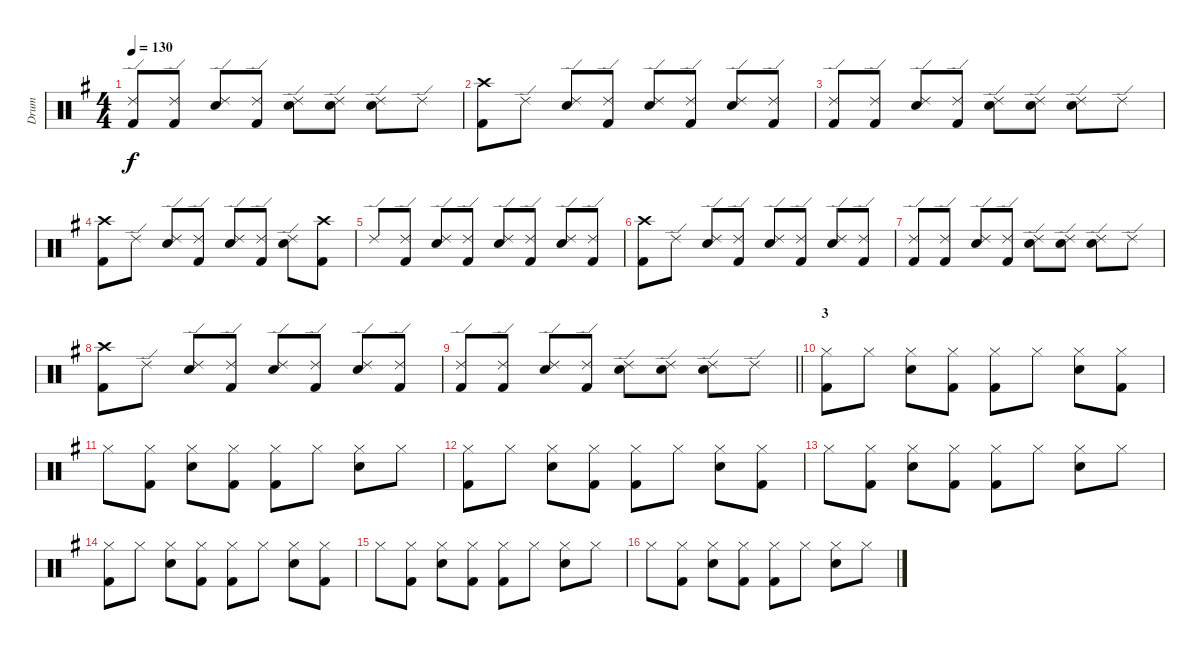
\track ("Drum" "Drum") {instrument percussion}
\staff {score}
\articulation defaults
\ts (4 4)
\tempo 130
\clef neutral
\ks g
("Kick (hit) 2" "Ride (edge) 2").8{dy f} ("Kick (hit) 2" "Ride (edge) 2").8 ("Ride (edge) 2" "Electric Snare (hit)").8 ("Ride (edge) 2" "Kick (hit) 2").8 ("Electric Snare (hit)" "Ride (edge) 2").8 ("Ride (edge) 2" "Electric Snare (hit)").8 ("Electric Snare (hit)" "Ride (edge) 2").8 "Ride (edge) 2".8 |
("Kick (hit) 2" "Crash high (hit)").8 "Ride (edge) 2".8 ("Ride (edge) 2" "Electric Snare (hit)").8 ("Ride (edge) 2" "Kick (hit) 2").8 ("Electric Snare (hit)" "Ride (edge) 2").8 ("Ride (edge) 2" "Kick (hit) 2").8 ("Electric Snare (hit)" "Ride (edge) 2").8 ("Kick (hit) 2" "Ride (edge) 2").8 |
("Kick (hit) 2" "Ride (edge) 2").8 ("Kick (hit) 2" "Ride (edge) 2").8 ("Ride (edge) 2" "Electric Snare (hit)").8 ("Ride (edge) 2" "Kick (hit) 2").8 ("Electric Snare (hit)" "Ride (edge) 2").8 ("Ride (edge) 2" "Electric Snare (hit)").8 ("Electric Snare (hit)" "Ride (edge) 2").8 "Ride (edge) 2".8 |
("Kick (hit) 2" "Crash high (hit)").8 "Ride (edge) 2".8 ("Ride (edge) 2" "Electric Snare (hit)").8 ("Ride (edge) 2" "Kick (hit) 2").8 ("Electric Snare (hit)" "Ride (edge) 2").8 ("Ride (edge) 2" "Kick (hit) 2").8 ("Electric Snare (hit)" "Ride (edge) 2").8 ("Kick (hit) 2" "Crash high (hit)").8 |
"Ride (edge) 2".8 ("Kick (hit) 2" "Ride (edge) 2").8 ("Ride (edge) 2" "Electric Snare (hit)").8 ("Ride (edge) 2" "Kick (hit) 2").8 ("Electric Snare (hit)" "Ride (edge) 2").8 ("Ride (edge) 2" "Kick (hit) 2").8 ("Electric Snare (hit)" "Ride (edge) 2").8 ("Kick (hit) 2" "Ride (edge) 2").8 |
("Kick (hit) 2" "Crash high (hit)").8 "Ride (edge) 2".8 ("Ride (edge) 2" "Electric Snare (hit)").8 ("Ride (edge) 2" "Kick (hit) 2").8 ("Electric Snare (hit)" "Ride (edge) 2").8 ("Ride (edge) 2" "Kick (hit) 2").8 ("Electric Snare (hit)" "Ride (edge) 2").8 ("Kick (hit) 2" "Ride (edge) 2").8 |
("Kick (hit) 2" "Ride (edge) 2").8 ("Kick (hit) 2" "Ride (edge) 2").8 ("Ride (edge) 2" "Electric Snare (hit)").8 ("Ride (edge) 2" "Kick (hit) 2").8 ("Electric Snare (hit)" "Ride (edge) 2").8 ("Ride (edge) 2" "Electric Snare (hit)").8 ("Electric Snare (hit)" "Ride (edge) 2").8 "Ride (edge) 2".8 |
("Kick (hit) 2" "Crash high (hit)").8 "Ride (edge) 2".8 ("Ride (edge) 2" "Electric Snare (hit)").8 ("Ride (edge) 2" "Kick (hit) 2").8 ("Electric Snare (hit)" "Ride (edge) 2").8 ("Ride (edge) 2" "Kick (hit) 2").8 ("Electric Snare (hit)" "Ride (edge) 2").8 ("Kick (hit) 2" "Ride (edge) 2").8 |
\barLineRight lightlight
("Kick (hit) 2" "Ride (edge) 2").8 ("Kick (hit) 2" "Ride (edge) 2").8 ("Ride (edge) 2" "Electric Snare (hit)").8 ("Ride (edge) 2" "Kick (hit) 2").8 ("Electric Snare (hit)" "Ride (edge) 2").8 ("Ride (edge) 2" "Electric Snare (hit)").8 ("Electric Snare (hit)" "Ride (edge) 2").8 "Ride (edge) 2".8 |
\section ("" "3")
("Kick (hit) 2" "Hi-Hat (closed)").8 "Hi-Hat (closed)".8 ("Hi-Hat (closed)" "Electric Snare (hit)").8 ("Kick (hit) 2" "Hi-Hat (closed)").8 ("Kick (hit) 2" "Hi-Hat (closed)").8 "Hi-Hat (closed)".8 ("Hi-Hat (closed)" "Electric Snare (hit)").8 ("Kick (hit) 2" "Hi-Hat (closed)").8 |
"Hi-Hat (closed)".8 ("Kick (hit) 2" "Hi-Hat (closed)").8 ("Hi-Hat (closed)" "Electric Snare (hit)").8 ("Kick (hit) 2" "Hi-Hat (closed)").8 ("Kick (hit) 2" "Hi-Hat (closed)").8 "Hi-Hat (closed)".8 ("Hi-Hat (closed)" "Electric Snare (hit)").8 "Hi-Hat (closed)".8 |
("Kick (hit) 2" "Hi-Hat (closed)").8 "Hi-Hat (closed)".8 ("Hi-Hat (closed)" "Electric Snare (hit)").8 ("Kick (hit) 2" "Hi-Hat (closed)").8 ("Kick (hit) 2" "Hi-Hat (closed)").8 "Hi-Hat (closed)".8 ("Hi-Hat (closed)" "Electric Snare (hit)").8 ("Kick (hit) 2" "Hi-Hat (closed)").8 |
"Hi-Hat (closed)".8 ("Kick (hit) 2" "Hi-Hat (closed)").8 ("Hi-Hat (closed)" "Electric Snare (hit)").8 ("Kick (hit) 2" "Hi-Hat (closed)").8 ("Kick (hit) 2" "Hi-Hat (closed)").8 "Hi-Hat (closed)".8 ("Hi-Hat (closed)" "Electric Snare (hit)").8 "Hi-Hat (closed)".8 |
("Kick (hit) 2" "Hi-Hat (closed)").8 "Hi-Hat (closed)".8 ("Hi-Hat (closed)" "Electric Snare (hit)").8 ("Kick (hit) 2" "Hi-Hat (closed)").8 ("Kick (hit) 2" "Hi-Hat (closed)").8 "Hi-Hat (closed)".8 ("Hi-Hat (closed)" "Electric Snare (hit)").8 ("Kick (hit) 2" "Hi-Hat (closed)").8 |
"Hi-Hat (closed)".8 ("Kick (hit) 2" "Hi-Hat (closed)").8 ("Hi-Hat (closed)" "Electric Snare (hit)").8 ("Kick (hit) 2" "Hi-Hat (closed)").8 ("Kick (hit) 2" "Hi-Hat (closed)").8 "Hi-Hat (closed)".8 ("Hi-Hat (closed)" "Electric Snare (hit)").8 "Hi-Hat (closed)".8 |
"Hi-Hat (closed)".8 ("Kick (hit) 2" "Hi-Hat (closed)").8 ("Hi-Hat (closed)" "Electric Snare (hit)").8 ("Kick (hit) 2" "Hi-Hat (closed)").8 ("Kick (hit) 2" "Hi-Hat (closed)").8 "Hi-Hat (closed)".8 ("Hi-Hat (closed)" "Electric Snare (hit)").8 "Hi-Hat (closed)".8
